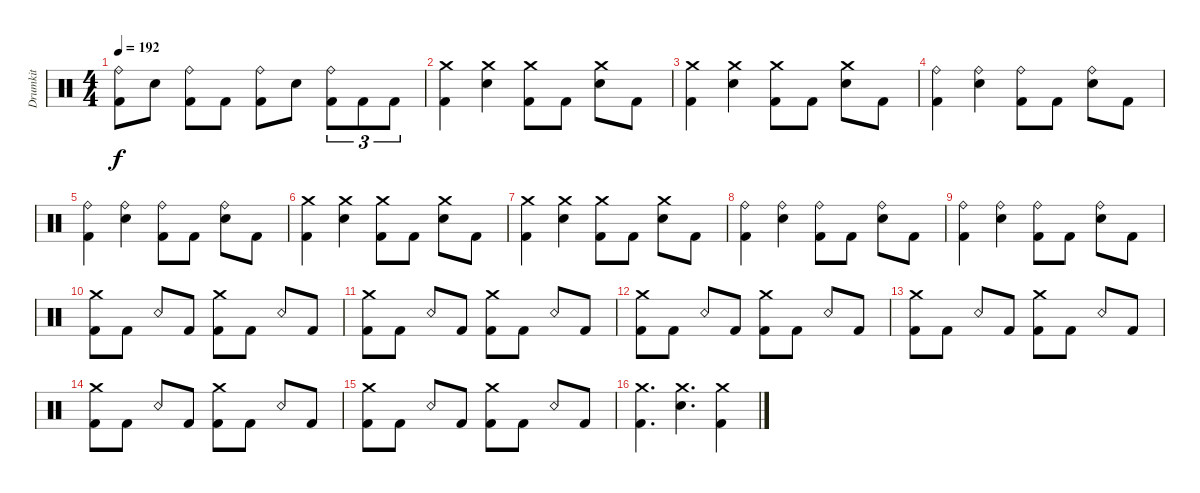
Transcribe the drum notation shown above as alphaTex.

\track ("Drumkit" "Drumkit") {instrument percussion}
\staff {score}
\articulation defaults
\ts (4 4)
\tempo 192
\clef neutral
\ks c
("Kick (hit) 2" "Ride (bell)").8{dy f} "Snare (hit) 2".8 ("Kick (hit) 2" "Ride (bell)").8 "Kick (hit) 2".8 ("Kick (hit) 2" "Ride (bell)").8 "Snare (hit) 2".8 ("Kick (hit) 2" "Ride (bell)").8{tu (3 2)} "Kick (hit) 2".8{tu (3 2)} "Kick (hit) 2".8{tu (3 2)} |
("Crash medium (hit)" "Kick (hit) 2").4 ("Crash medium (hit)" "Snare (hit) 2").4 ("Crash medium (hit)" "Kick (hit) 2").8 "Kick (hit) 2".8 ("Crash medium (hit)" "Snare (hit) 2").8 "Kick (hit) 2".8 |
("Crash medium (hit)" "Kick (hit) 2").4 ("Crash medium (hit)" "Snare (hit) 2").4 ("Crash medium (hit)" "Kick (hit) 2").8 "Kick (hit) 2".8 ("Crash medium (hit)" "Snare (hit) 2").8 "Kick (hit) 2".8 |
("Kick (hit) 2" "Ride (bell)").4 ("Snare (hit) 2" "Ride (bell)").4 ("Kick (hit) 2" "Ride (bell)").8 "Kick (hit) 2".8 ("Snare (hit) 2" "Ride (bell)").8 "Kick (hit) 2".8 |
("Kick (hit) 2" "Ride (bell)").4 ("Snare (hit) 2" "Ride (bell)").4 ("Kick (hit) 2" "Ride (bell)").8 "Kick (hit) 2".8 ("Snare (hit) 2" "Ride (bell)").8 "Kick (hit) 2".8 |
("Crash medium (hit)" "Kick (hit) 2").4 ("Crash medium (hit)" "Snare (hit) 2").4 ("Crash medium (hit)" "Kick (hit) 2").8 "Kick (hit) 2".8 ("Crash medium (hit)" "Snare (hit) 2").8 "Kick (hit) 2".8 |
("Crash medium (hit)" "Kick (hit) 2").4 ("Crash medium (hit)" "Snare (hit) 2").4 ("Crash medium (hit)" "Kick (hit) 2").8 "Kick (hit) 2".8 ("Crash medium (hit)" "Snare (hit) 2").8 "Kick (hit) 2".8 |
("Kick (hit) 2" "Ride (bell)").4 ("Snare (hit) 2" "Ride (bell)").4 ("Kick (hit) 2" "Ride (bell)").8 "Kick (hit) 2".8 ("Snare (hit) 2" "Ride (bell)").8 "Kick (hit) 2".8 |
("Kick (hit) 2" "Ride (bell)").4 ("Snare (hit) 2" "Ride (bell)").4 ("Kick (hit) 2" "Ride (bell)").8 "Kick (hit) 2".8 ("Snare (hit) 2" "Ride (bell)").8 "Kick (hit) 2".8 |
("Crash medium (hit)" "Kick (hit) 2").8 "Kick (hit) 2".8 "Snare (rim shot)".8 "Kick (hit) 2".8 ("Kick (hit) 2" "Crash medium (hit)").8 "Kick (hit) 2".8 "Snare (rim shot)".8 "Kick (hit) 2".8 |
("Crash medium (hit)" "Kick (hit) 2").8 "Kick (hit) 2".8 "Snare (rim shot)".8 "Kick (hit) 2".8 ("Kick (hit) 2" "Crash medium (hit)").8 "Kick (hit) 2".8 "Snare (rim shot)".8 "Kick (hit) 2".8 |
("Crash medium (hit)" "Kick (hit) 2").8 "Kick (hit) 2".8 "Snare (rim shot)".8 "Kick (hit) 2".8 ("Kick (hit) 2" "Crash medium (hit)").8 "Kick (hit) 2".8 "Snare (rim shot)".8 "Kick (hit) 2".8 |
("Crash medium (hit)" "Kick (hit) 2").8 "Kick (hit) 2".8 "Snare (rim shot)".8 "Kick (hit) 2".8 ("Kick (hit) 2" "Crash medium (hit)").8 "Kick (hit) 2".8 "Snare (rim shot)".8 "Kick (hit) 2".8 |
("Crash medium (hit)" "Kick (hit) 2").8 "Kick (hit) 2".8 "Snare (rim shot)".8 "Kick (hit) 2".8 ("Kick (hit) 2" "Crash medium (hit)").8 "Kick (hit) 2".8 "Snare (rim shot)".8 "Kick (hit) 2".8 |
("Crash medium (hit)" "Kick (hit) 2").8 "Kick (hit) 2".8 "Snare (rim shot)".8 "Kick (hit) 2".8 ("Kick (hit) 2" "Crash medium (hit)").8 "Kick (hit) 2".8 "Snare (rim shot)".8 "Kick (hit) 2".8 |
("Crash medium (hit)" "Kick (hit) 2").4{d} ("Crash medium (hit)" "Snare (hit) 2").4{d} ("Crash medium (hit)" "Kick (hit) 2").4
